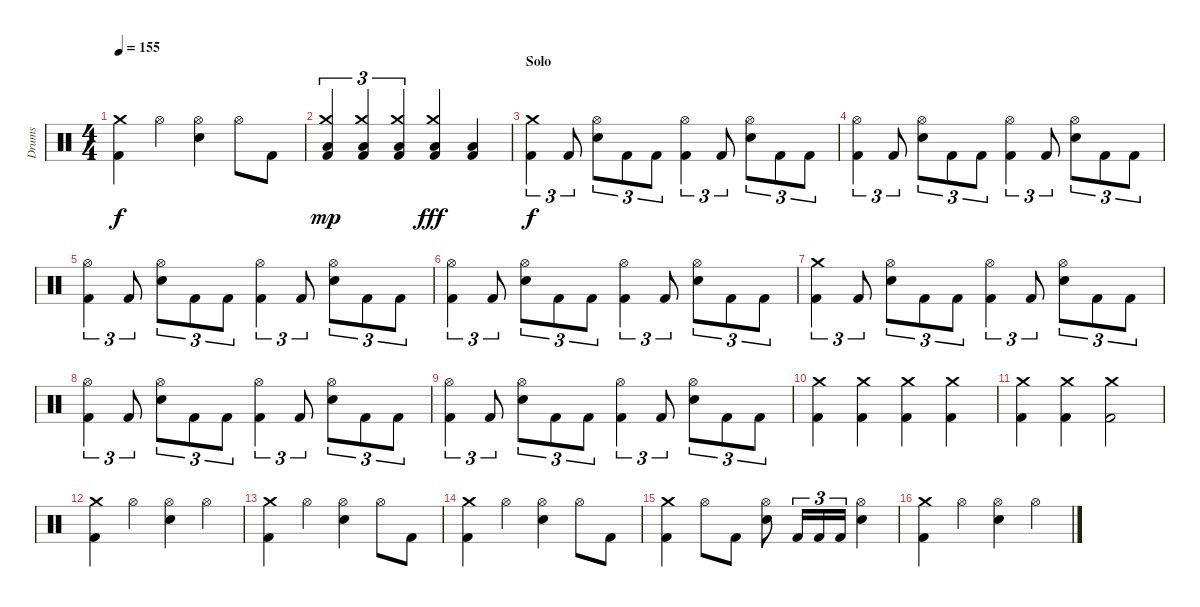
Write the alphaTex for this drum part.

\track ("Drums" "Drums") {instrument percussion}
\staff {score}
\articulation defaults
\ts (4 4)
\tempo 155
\clef neutral
\ks c
("Kick (hit) 2" "Crash medium (hit)").4{dy f} "Hi-Hat (open)".4 ("Electric Snare (hit)" "Hi-Hat (open)").4 "Hi-Hat (open)".8 "Kick (hit) 2".8 |
("Kick (hit) 2" "Low Tom (hit)" "Crash medium (hit)").4{tu (3 2) dy mp} ("Kick (hit) 2" "Low Tom (hit)" "Crash medium (hit)").4{tu (3 2)} ("Kick (hit) 2" "Low Tom (hit)" "Crash medium (hit)").4{tu (3 2)} ("Kick (hit) 2" "Low Tom (hit)" "Crash medium (hit)").4{dy fff} ("Kick (hit) 2" "Low Tom (hit)").4 |
\section ("" "Solo")
("Kick (hit) 2" "Crash medium (hit)").4{tu (3 2) dy f} "Kick (hit) 2".8{tu (3 2)} ("Electric Snare (hit)" "Hi-Hat (open)").8{tu (3 2)} "Kick (hit) 2".8{tu (3 2)} "Kick (hit) 2".8{tu (3 2)} ("Kick (hit) 2" "Hi-Hat (open)").4{tu (3 2)} "Kick (hit) 2".8{tu (3 2)} ("Electric Snare (hit)" "Hi-Hat (open)").8{tu (3 2)} "Kick (hit) 2".8{tu (3 2)} "Kick (hit) 2".8{tu (3 2)} |
("Kick (hit) 2" "Hi-Hat (open)").4{tu (3 2)} "Kick (hit) 2".8{tu (3 2)} ("Electric Snare (hit)" "Hi-Hat (open)").8{tu (3 2)} "Kick (hit) 2".8{tu (3 2)} "Kick (hit) 2".8{tu (3 2)} ("Kick (hit) 2" "Hi-Hat (open)").4{tu (3 2)} "Kick (hit) 2".8{tu (3 2)} ("Electric Snare (hit)" "Hi-Hat (open)").8{tu (3 2)} "Kick (hit) 2".8{tu (3 2)} "Kick (hit) 2".8{tu (3 2)} |
("Kick (hit) 2" "Hi-Hat (open)").4{tu (3 2)} "Kick (hit) 2".8{tu (3 2)} ("Electric Snare (hit)" "Hi-Hat (open)").8{tu (3 2)} "Kick (hit) 2".8{tu (3 2)} "Kick (hit) 2".8{tu (3 2)} ("Kick (hit) 2" "Hi-Hat (open)").4{tu (3 2)} "Kick (hit) 2".8{tu (3 2)} ("Electric Snare (hit)" "Hi-Hat (open)").8{tu (3 2)} "Kick (hit) 2".8{tu (3 2)} "Kick (hit) 2".8{tu (3 2)} |
("Kick (hit) 2" "Hi-Hat (open)").4{tu (3 2)} "Kick (hit) 2".8{tu (3 2)} ("Electric Snare (hit)" "Hi-Hat (open)").8{tu (3 2)} "Kick (hit) 2".8{tu (3 2)} "Kick (hit) 2".8{tu (3 2)} ("Kick (hit) 2" "Hi-Hat (open)").4{tu (3 2)} "Kick (hit) 2".8{tu (3 2)} ("Electric Snare (hit)" "Hi-Hat (open)").8{tu (3 2)} "Kick (hit) 2".8{tu (3 2)} "Kick (hit) 2".8{tu (3 2)} |
("Kick (hit) 2" "Crash medium (hit)").4{tu (3 2)} "Kick (hit) 2".8{tu (3 2)} ("Electric Snare (hit)" "Hi-Hat (open)").8{tu (3 2)} "Kick (hit) 2".8{tu (3 2)} "Kick (hit) 2".8{tu (3 2)} ("Kick (hit) 2" "Hi-Hat (open)").4{tu (3 2)} "Kick (hit) 2".8{tu (3 2)} ("Electric Snare (hit)" "Hi-Hat (open)").8{tu (3 2)} "Kick (hit) 2".8{tu (3 2)} "Kick (hit) 2".8{tu (3 2)} |
("Kick (hit) 2" "Hi-Hat (open)").4{tu (3 2)} "Kick (hit) 2".8{tu (3 2)} ("Electric Snare (hit)" "Hi-Hat (open)").8{tu (3 2)} "Kick (hit) 2".8{tu (3 2)} "Kick (hit) 2".8{tu (3 2)} ("Kick (hit) 2" "Hi-Hat (open)").4{tu (3 2)} "Kick (hit) 2".8{tu (3 2)} ("Electric Snare (hit)" "Hi-Hat (open)").8{tu (3 2)} "Kick (hit) 2".8{tu (3 2)} "Kick (hit) 2".8{tu (3 2)} |
("Kick (hit) 2" "Hi-Hat (open)").4{tu (3 2)} "Kick (hit) 2".8{tu (3 2)} ("Electric Snare (hit)" "Hi-Hat (open)").8{tu (3 2)} "Kick (hit) 2".8{tu (3 2)} "Kick (hit) 2".8{tu (3 2)} ("Kick (hit) 2" "Hi-Hat (open)").4{tu (3 2)} "Kick (hit) 2".8{tu (3 2)} ("Electric Snare (hit)" "Hi-Hat (open)").8{tu (3 2)} "Kick (hit) 2".8{tu (3 2)} "Kick (hit) 2".8{tu (3 2)} |
("Kick (hit) 2" "Crash medium (hit)").4 ("Kick (hit) 2" "Crash medium (hit)").4 ("Kick (hit) 2" "Crash medium (hit)").4 ("Kick (hit) 2" "Crash medium (hit)").4 |
("Kick (hit) 2" "Crash medium (hit)").4 ("Kick (hit) 2" "Crash medium (hit)").4 ("Kick (hit) 2" "Crash medium (hit)").2 |
("Kick (hit) 2" "Crash medium (hit)").4 "Hi-Hat (open)".4 ("Electric Snare (hit)" "Hi-Hat (open)").4 "Hi-Hat (open)".4 |
("Kick (hit) 2" "Crash medium (hit)").4 "Hi-Hat (open)".4 ("Electric Snare (hit)" "Hi-Hat (open)").4 "Hi-Hat (open)".8 "Kick (hit) 2".8 |
("Kick (hit) 2" "Crash medium (hit)").4 "Hi-Hat (open)".4 ("Electric Snare (hit)" "Hi-Hat (open)").4 "Hi-Hat (open)".8 "Kick (hit) 2".8 |
("Kick (hit) 2" "Crash medium (hit)").4 "Hi-Hat (open)".8 "Kick (hit) 2".8 ("Electric Snare (hit)" "Hi-Hat (open)").8 "Kick (hit) 2".16{tu (3 2)} "Kick (hit) 2".16{tu (3 2)} "Kick (hit) 2".16{tu (3 2)} ("Electric Snare (hit)" "Hi-Hat (open)").4 |
("Kick (hit) 2" "Crash medium (hit)").4 "Hi-Hat (open)".4 ("Electric Snare (hit)" "Hi-Hat (open)").4 "Hi-Hat (open)".4
